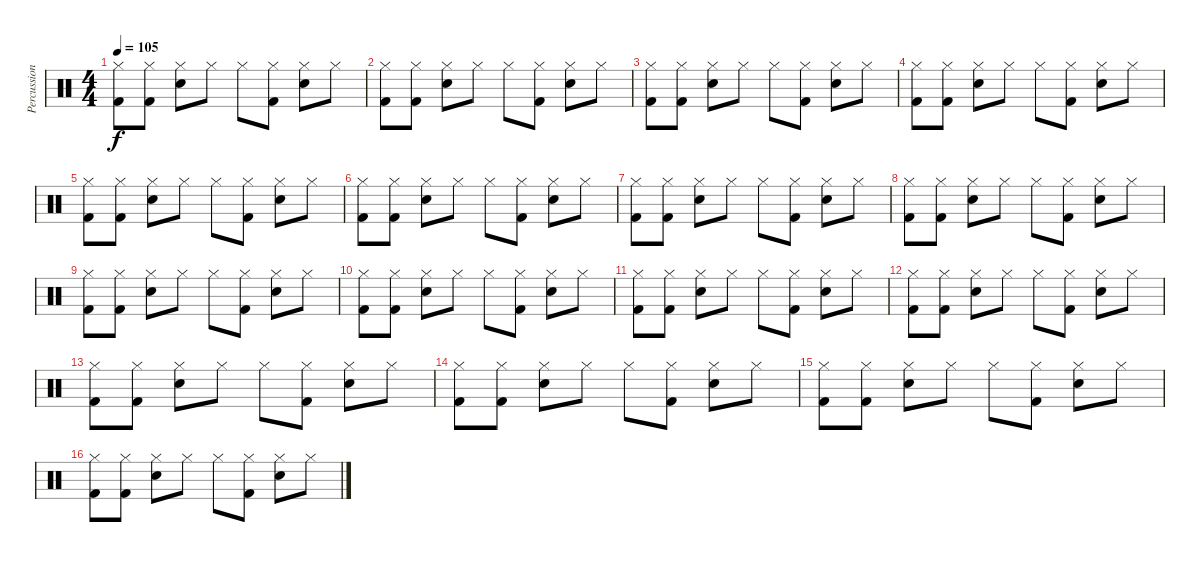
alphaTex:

\track ("Percussions" "Percussion") {instrument percussion}
\staff {score}
\articulation defaults
\ts (4 4)
\tempo 105
\clef neutral
\ks c
("Hi-Hat (closed)" "Kick (hit) 2").8{dy f} ("Hi-Hat (closed)" "Kick (hit) 2").8 ("Hi-Hat (closed)" "Snare (hit) 2").8 "Hi-Hat (closed)".8 "Hi-Hat (closed)".8 ("Hi-Hat (closed)" "Kick (hit) 2").8 ("Hi-Hat (closed)" "Snare (hit) 2").8 "Hi-Hat (closed)".8 |
("Hi-Hat (closed)" "Kick (hit) 2").8 ("Hi-Hat (closed)" "Kick (hit) 2").8 ("Hi-Hat (closed)" "Snare (hit) 2").8 "Hi-Hat (closed)".8 "Hi-Hat (closed)".8 ("Hi-Hat (closed)" "Kick (hit) 2").8 ("Hi-Hat (closed)" "Snare (hit) 2").8 "Hi-Hat (closed)".8 |
("Hi-Hat (closed)" "Kick (hit) 2").8 ("Hi-Hat (closed)" "Kick (hit) 2").8 ("Hi-Hat (closed)" "Snare (hit) 2").8 "Hi-Hat (closed)".8 "Hi-Hat (closed)".8 ("Hi-Hat (closed)" "Kick (hit) 2").8 ("Hi-Hat (closed)" "Snare (hit) 2").8 "Hi-Hat (closed)".8 |
("Hi-Hat (closed)" "Kick (hit) 2").8 ("Hi-Hat (closed)" "Kick (hit) 2").8 ("Hi-Hat (closed)" "Snare (hit) 2").8 "Hi-Hat (closed)".8 "Hi-Hat (closed)".8 ("Hi-Hat (closed)" "Kick (hit) 2").8 ("Hi-Hat (closed)" "Snare (hit) 2").8 "Hi-Hat (closed)".8 |
("Hi-Hat (closed)" "Kick (hit) 2").8 ("Hi-Hat (closed)" "Kick (hit) 2").8 ("Hi-Hat (closed)" "Snare (hit) 2").8 "Hi-Hat (closed)".8 "Hi-Hat (closed)".8 ("Hi-Hat (closed)" "Kick (hit) 2").8 ("Hi-Hat (closed)" "Snare (hit) 2").8 "Hi-Hat (closed)".8 |
("Hi-Hat (closed)" "Kick (hit) 2").8 ("Hi-Hat (closed)" "Kick (hit) 2").8 ("Hi-Hat (closed)" "Snare (hit) 2").8 "Hi-Hat (closed)".8 "Hi-Hat (closed)".8 ("Hi-Hat (closed)" "Kick (hit) 2").8 ("Hi-Hat (closed)" "Snare (hit) 2").8 "Hi-Hat (closed)".8 |
("Hi-Hat (closed)" "Kick (hit) 2").8 ("Hi-Hat (closed)" "Kick (hit) 2").8 ("Hi-Hat (closed)" "Snare (hit) 2").8 "Hi-Hat (closed)".8 "Hi-Hat (closed)".8 ("Hi-Hat (closed)" "Kick (hit) 2").8 ("Hi-Hat (closed)" "Snare (hit) 2").8 "Hi-Hat (closed)".8 |
("Hi-Hat (closed)" "Kick (hit) 2").8 ("Hi-Hat (closed)" "Kick (hit) 2").8 ("Hi-Hat (closed)" "Snare (hit) 2").8 "Hi-Hat (closed)".8 "Hi-Hat (closed)".8 ("Hi-Hat (closed)" "Kick (hit) 2").8 ("Hi-Hat (closed)" "Snare (hit) 2").8 "Hi-Hat (closed)".8 |
("Hi-Hat (closed)" "Kick (hit) 2").8 ("Hi-Hat (closed)" "Kick (hit) 2").8 ("Hi-Hat (closed)" "Snare (hit) 2").8 "Hi-Hat (closed)".8 "Hi-Hat (closed)".8 ("Hi-Hat (closed)" "Kick (hit) 2").8 ("Hi-Hat (closed)" "Snare (hit) 2").8 "Hi-Hat (closed)".8 |
("Hi-Hat (closed)" "Kick (hit) 2").8 ("Hi-Hat (closed)" "Kick (hit) 2").8 ("Hi-Hat (closed)" "Snare (hit) 2").8 "Hi-Hat (closed)".8 "Hi-Hat (closed)".8 ("Hi-Hat (closed)" "Kick (hit) 2").8 ("Hi-Hat (closed)" "Snare (hit) 2").8 "Hi-Hat (closed)".8 |
("Hi-Hat (closed)" "Kick (hit) 2").8 ("Hi-Hat (closed)" "Kick (hit) 2").8 ("Hi-Hat (closed)" "Snare (hit) 2").8 "Hi-Hat (closed)".8 "Hi-Hat (closed)".8 ("Hi-Hat (closed)" "Kick (hit) 2").8 ("Hi-Hat (closed)" "Snare (hit) 2").8 "Hi-Hat (closed)".8 |
("Hi-Hat (closed)" "Kick (hit) 2").8 ("Hi-Hat (closed)" "Kick (hit) 2").8 ("Hi-Hat (closed)" "Snare (hit) 2").8 "Hi-Hat (closed)".8 "Hi-Hat (closed)".8 ("Hi-Hat (closed)" "Kick (hit) 2").8 ("Hi-Hat (closed)" "Snare (hit) 2").8 "Hi-Hat (closed)".8 |
("Hi-Hat (closed)" "Kick (hit) 2").8 ("Hi-Hat (closed)" "Kick (hit) 2").8 ("Hi-Hat (closed)" "Snare (hit) 2").8 "Hi-Hat (closed)".8 "Hi-Hat (closed)".8 ("Hi-Hat (closed)" "Kick (hit) 2").8 ("Hi-Hat (closed)" "Snare (hit) 2").8 "Hi-Hat (closed)".8 |
("Hi-Hat (closed)" "Kick (hit) 2").8 ("Hi-Hat (closed)" "Kick (hit) 2").8 ("Hi-Hat (closed)" "Snare (hit) 2").8 "Hi-Hat (closed)".8 "Hi-Hat (closed)".8 ("Hi-Hat (closed)" "Kick (hit) 2").8 ("Hi-Hat (closed)" "Snare (hit) 2").8 "Hi-Hat (closed)".8 |
("Hi-Hat (closed)" "Kick (hit) 2").8 ("Hi-Hat (closed)" "Kick (hit) 2").8 ("Hi-Hat (closed)" "Snare (hit) 2").8 "Hi-Hat (closed)".8 "Hi-Hat (closed)".8 ("Hi-Hat (closed)" "Kick (hit) 2").8 ("Hi-Hat (closed)" "Snare (hit) 2").8 "Hi-Hat (closed)".8 |
("Hi-Hat (closed)" "Kick (hit) 2").8 ("Hi-Hat (closed)" "Kick (hit) 2").8 ("Hi-Hat (closed)" "Snare (hit) 2").8 "Hi-Hat (closed)".8 "Hi-Hat (closed)".8 ("Hi-Hat (closed)" "Kick (hit) 2").8 ("Hi-Hat (closed)" "Snare (hit) 2").8 "Hi-Hat (closed)".8
